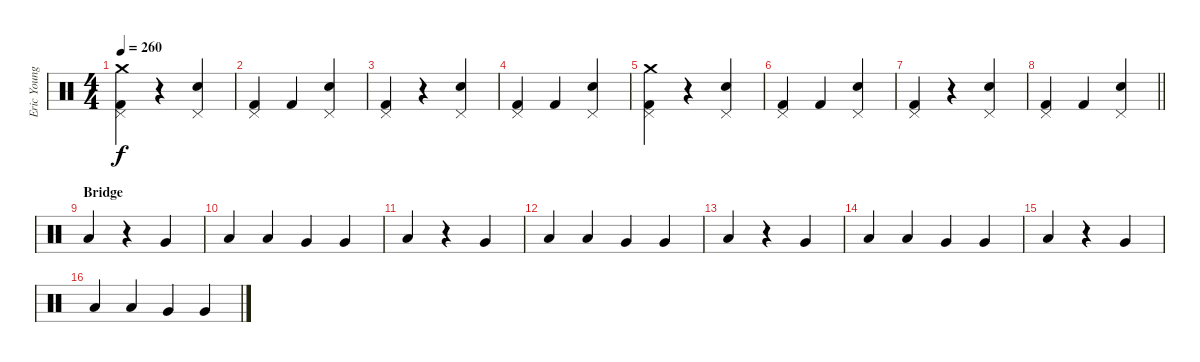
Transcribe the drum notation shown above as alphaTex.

\track ("Eric Young (Drums)" "Eric Young") {instrument percussion}
\staff {score}
\articulation defaults
\ts (4 4)
\tempo 260
\clef neutral
\ks c
("Pedal Hi-Hat (hit)" "Kick (hit) 2" "Crash medium (hit)").4{dy f} r.4 ("Pedal Hi-Hat (hit)" "Snare (hit) 2").4 |
("Pedal Hi-Hat (hit)" "Kick (hit) 2").4 "Kick (hit) 2".4 ("Pedal Hi-Hat (hit)" "Snare (hit) 2").4 |
("Pedal Hi-Hat (hit)" "Kick (hit) 2").4 r.4 ("Pedal Hi-Hat (hit)" "Snare (hit) 2").4 |
("Pedal Hi-Hat (hit)" "Kick (hit) 2").4 "Kick (hit) 2".4 ("Pedal Hi-Hat (hit)" "Snare (hit) 2").4 |
("Pedal Hi-Hat (hit)" "Kick (hit) 2" "Crash medium (hit)").4 r.4 ("Pedal Hi-Hat (hit)" "Snare (hit) 2").4 |
("Pedal Hi-Hat (hit)" "Kick (hit) 2").4 "Kick (hit) 2".4 ("Pedal Hi-Hat (hit)" "Snare (hit) 2").4 |
("Pedal Hi-Hat (hit)" "Kick (hit) 2").4 r.4 ("Pedal Hi-Hat (hit)" "Snare (hit) 2").4 |
\barLineRight lightlight
("Pedal Hi-Hat (hit)" "Kick (hit) 2").4 "Kick (hit) 2".4 ("Pedal Hi-Hat (hit)" "Snare (hit) 2").4 |
\section ("" "Bridge")
"Low Floor Tom (hit)".4 r.4 "Very Low Tom (hit)".4 |
"Low Floor Tom (hit)".4 "Low Floor Tom (hit)".4 "Very Low Tom (hit)".4 "Very Low Tom (hit)".4 |
"Low Floor Tom (hit)".4 r.4 "Very Low Tom (hit)".4 |
"Low Floor Tom (hit)".4 "Low Floor Tom (hit)".4 "Very Low Tom (hit)".4 "Very Low Tom (hit)".4 |
"Low Floor Tom (hit)".4 r.4 "Very Low Tom (hit)".4 |
"Low Floor Tom (hit)".4 "Low Floor Tom (hit)".4 "Very Low Tom (hit)".4 "Very Low Tom (hit)".4 |
"Low Floor Tom (hit)".4 r.4 "Very Low Tom (hit)".4 |
"Low Floor Tom (hit)".4 "Low Floor Tom (hit)".4 "Very Low Tom (hit)".4 "Very Low Tom (hit)".4
